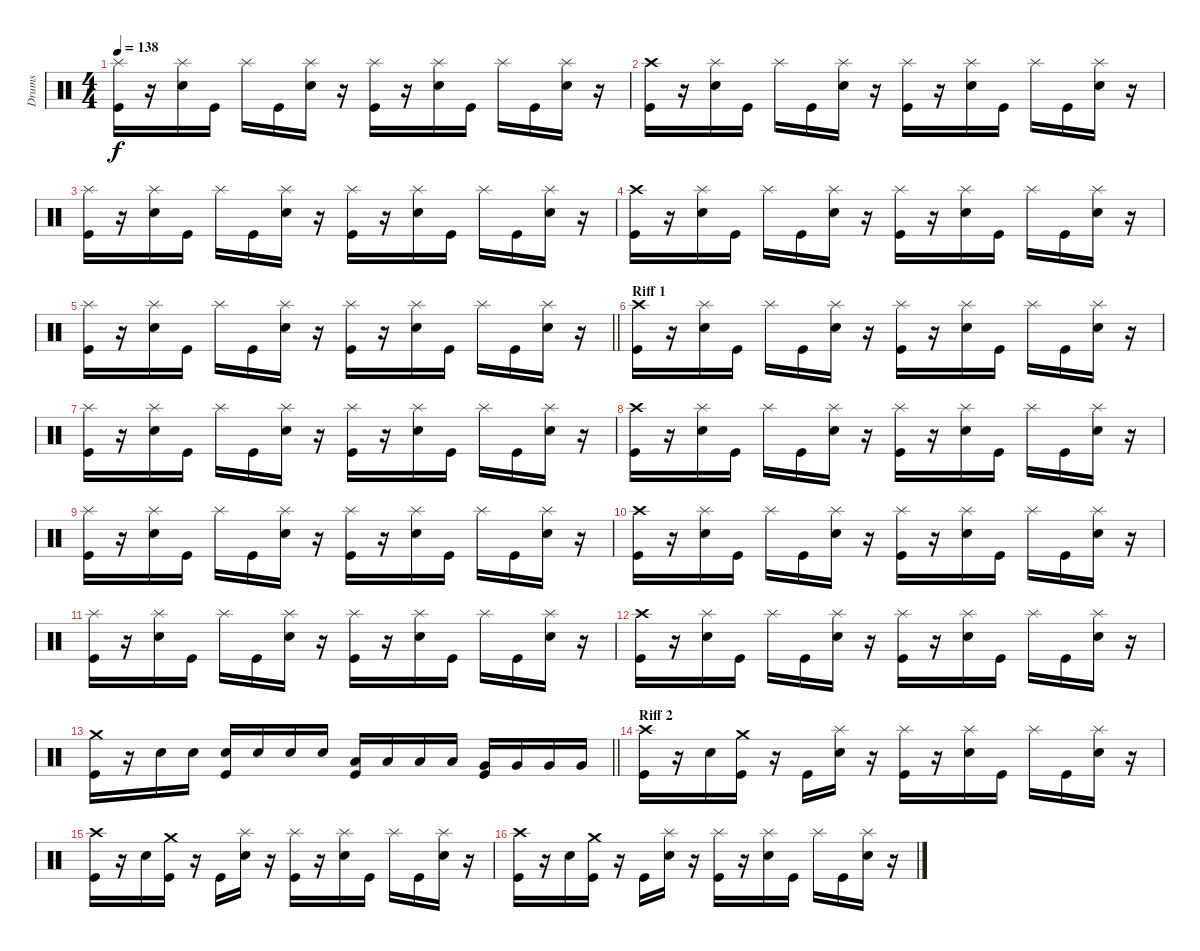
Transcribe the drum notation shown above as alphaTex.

\track ("Drums" "Drums") {instrument percussion}
\staff {score}
\articulation defaults
\ts (4 4)
\tempo 138
\clef neutral
\ks c
("Splash (hit)" "Kick (hit)").16{dy f} r.16 ("Splash (hit)" "Electric Snare (hit)").16 "Kick (hit)".16 "Splash (hit)".16 "Kick (hit)".16 ("Splash (hit)" "Electric Snare (hit)").16 r.16 ("Splash (hit)" "Kick (hit)").16 r.16 ("Splash (hit)" "Electric Snare (hit)").16 "Kick (hit)".16 "Splash (hit)".16 "Kick (hit)".16 ("Splash (hit)" "Electric Snare (hit)").16 r.16 |
("Crash high (hit)" "Kick (hit)").16 r.16 ("Splash (hit)" "Electric Snare (hit)").16 "Kick (hit)".16 "Splash (hit)".16 "Kick (hit)".16 ("Splash (hit)" "Electric Snare (hit)").16 r.16 ("Splash (hit)" "Kick (hit)").16 r.16 ("Splash (hit)" "Electric Snare (hit)").16 "Kick (hit)".16 "Splash (hit)".16 "Kick (hit)".16 ("Splash (hit)" "Electric Snare (hit)").16 r.16 |
("Splash (hit)" "Kick (hit)").16 r.16 ("Splash (hit)" "Electric Snare (hit)").16 "Kick (hit)".16 "Splash (hit)".16 "Kick (hit)".16 ("Splash (hit)" "Electric Snare (hit)").16 r.16 ("Splash (hit)" "Kick (hit)").16 r.16 ("Splash (hit)" "Electric Snare (hit)").16 "Kick (hit)".16 "Splash (hit)".16 "Kick (hit)".16 ("Splash (hit)" "Electric Snare (hit)").16 r.16 |
("Crash high (hit)" "Kick (hit)").16 r.16 ("Splash (hit)" "Electric Snare (hit)").16 "Kick (hit)".16 "Splash (hit)".16 "Kick (hit)".16 ("Splash (hit)" "Electric Snare (hit)").16 r.16 ("Splash (hit)" "Kick (hit)").16 r.16 ("Splash (hit)" "Electric Snare (hit)").16 "Kick (hit)".16 "Splash (hit)".16 "Kick (hit)".16 ("Splash (hit)" "Electric Snare (hit)").16 r.16 |
\barLineRight lightlight
("Splash (hit)" "Kick (hit)").16 r.16 ("Splash (hit)" "Electric Snare (hit)").16 "Kick (hit)".16 "Splash (hit)".16 "Kick (hit)".16 ("Splash (hit)" "Electric Snare (hit)").16 r.16 ("Splash (hit)" "Kick (hit)").16 r.16 ("Splash (hit)" "Electric Snare (hit)").16 "Kick (hit)".16 "Splash (hit)".16 "Kick (hit)".16 ("Splash (hit)" "Electric Snare (hit)").16 r.16 |
\section ("" "Riff 1")
("Crash high (hit)" "Kick (hit)").16 r.16 ("Splash (hit)" "Electric Snare (hit)").16 "Kick (hit)".16 "Splash (hit)".16 "Kick (hit)".16 ("Splash (hit)" "Electric Snare (hit)").16 r.16 ("Splash (hit)" "Kick (hit)").16 r.16 ("Splash (hit)" "Electric Snare (hit)").16 "Kick (hit)".16 "Splash (hit)".16 "Kick (hit)".16 ("Splash (hit)" "Electric Snare (hit)").16 r.16 |
("Splash (hit)" "Kick (hit)").16 r.16 ("Splash (hit)" "Electric Snare (hit)").16 "Kick (hit)".16 "Splash (hit)".16 "Kick (hit)".16 ("Splash (hit)" "Electric Snare (hit)").16 r.16 ("Splash (hit)" "Kick (hit)").16 r.16 ("Splash (hit)" "Electric Snare (hit)").16 "Kick (hit)".16 "Splash (hit)".16 "Kick (hit)".16 ("Splash (hit)" "Electric Snare (hit)").16 r.16 |
("Crash high (hit)" "Kick (hit)").16 r.16 ("Splash (hit)" "Electric Snare (hit)").16 "Kick (hit)".16 "Splash (hit)".16 "Kick (hit)".16 ("Splash (hit)" "Electric Snare (hit)").16 r.16 ("Splash (hit)" "Kick (hit)").16 r.16 ("Splash (hit)" "Electric Snare (hit)").16 "Kick (hit)".16 "Splash (hit)".16 "Kick (hit)".16 ("Splash (hit)" "Electric Snare (hit)").16 r.16 |
("Splash (hit)" "Kick (hit)").16 r.16 ("Splash (hit)" "Electric Snare (hit)").16 "Kick (hit)".16 "Splash (hit)".16 "Kick (hit)".16 ("Splash (hit)" "Electric Snare (hit)").16 r.16 ("Splash (hit)" "Kick (hit)").16 r.16 ("Splash (hit)" "Electric Snare (hit)").16 "Kick (hit)".16 "Splash (hit)".16 "Kick (hit)".16 ("Splash (hit)" "Electric Snare (hit)").16 r.16 |
("Crash high (hit)" "Kick (hit)").16 r.16 ("Splash (hit)" "Electric Snare (hit)").16 "Kick (hit)".16 "Splash (hit)".16 "Kick (hit)".16 ("Splash (hit)" "Electric Snare (hit)").16 r.16 ("Splash (hit)" "Kick (hit)").16 r.16 ("Splash (hit)" "Electric Snare (hit)").16 "Kick (hit)".16 "Splash (hit)".16 "Kick (hit)".16 ("Splash (hit)" "Electric Snare (hit)").16 r.16 |
("Splash (hit)" "Kick (hit)").16 r.16 ("Splash (hit)" "Electric Snare (hit)").16 "Kick (hit)".16 "Splash (hit)".16 "Kick (hit)".16 ("Splash (hit)" "Electric Snare (hit)").16 r.16 ("Splash (hit)" "Kick (hit)").16 r.16 ("Splash (hit)" "Electric Snare (hit)").16 "Kick (hit)".16 "Splash (hit)".16 "Kick (hit)".16 ("Splash (hit)" "Electric Snare (hit)").16 r.16 |
("Crash high (hit)" "Kick (hit)").16 r.16 ("Splash (hit)" "Electric Snare (hit)").16 "Kick (hit)".16 "Splash (hit)".16 "Kick (hit)".16 ("Splash (hit)" "Electric Snare (hit)").16 r.16 ("Splash (hit)" "Kick (hit)").16 r.16 ("Splash (hit)" "Electric Snare (hit)").16 "Kick (hit)".16 "Splash (hit)".16 "Kick (hit)".16 ("Splash (hit)" "Electric Snare (hit)").16 r.16 |
\barLineRight lightlight
("Crash medium (hit)" "Kick (hit)").16 r.16 "Electric Snare (hit)".16 "Electric Snare (hit)".16 ("Electric Snare (hit)" "Kick (hit)").16 "Electric Snare (hit)".16 "Electric Snare (hit)".16 "Electric Snare (hit)".16 ("Low Tom (hit)" "Kick (hit)").16 "Low Tom (hit)".16 "Low Tom (hit)".16 "Low Tom (hit)".16 ("Very Low Tom (hit)" "Kick (hit)").16 "Very Low Tom (hit)".16 "Very Low Tom (hit)".16 "Very Low Tom (hit)".16 |
\section ("" "Riff 2")
("Crash high (hit)" "Kick (hit)").16 r.16 "Electric Snare (hit)".16 ("Crash medium (hit)" "Kick (hit)").16 r.16 "Kick (hit)".16 ("Splash (hit)" "Electric Snare (hit)").16 r.16 ("Splash (hit)" "Kick (hit)").16 r.16 ("Splash (hit)" "Electric Snare (hit)").16 "Kick (hit)".16 "Splash (hit)".16 "Kick (hit)".16 ("Splash (hit)" "Electric Snare (hit)").16 r.16 |
("Crash high (hit)" "Kick (hit)").16 r.16 "Electric Snare (hit)".16 ("Crash medium (hit)" "Kick (hit)").16 r.16 "Kick (hit)".16 ("Splash (hit)" "Electric Snare (hit)").16 r.16 ("Splash (hit)" "Kick (hit)").16 r.16 ("Splash (hit)" "Electric Snare (hit)").16 "Kick (hit)".16 "Splash (hit)".16 "Kick (hit)".16 ("Splash (hit)" "Electric Snare (hit)").16 r.16 |
("Crash high (hit)" "Kick (hit)").16 r.16 "Electric Snare (hit)".16 ("Crash medium (hit)" "Kick (hit)").16 r.16 "Kick (hit)".16 ("Splash (hit)" "Electric Snare (hit)").16 r.16 ("Splash (hit)" "Kick (hit)").16 r.16 ("Splash (hit)" "Electric Snare (hit)").16 "Kick (hit)".16 "Splash (hit)".16 "Kick (hit)".16 ("Splash (hit)" "Electric Snare (hit)").16 r.16
